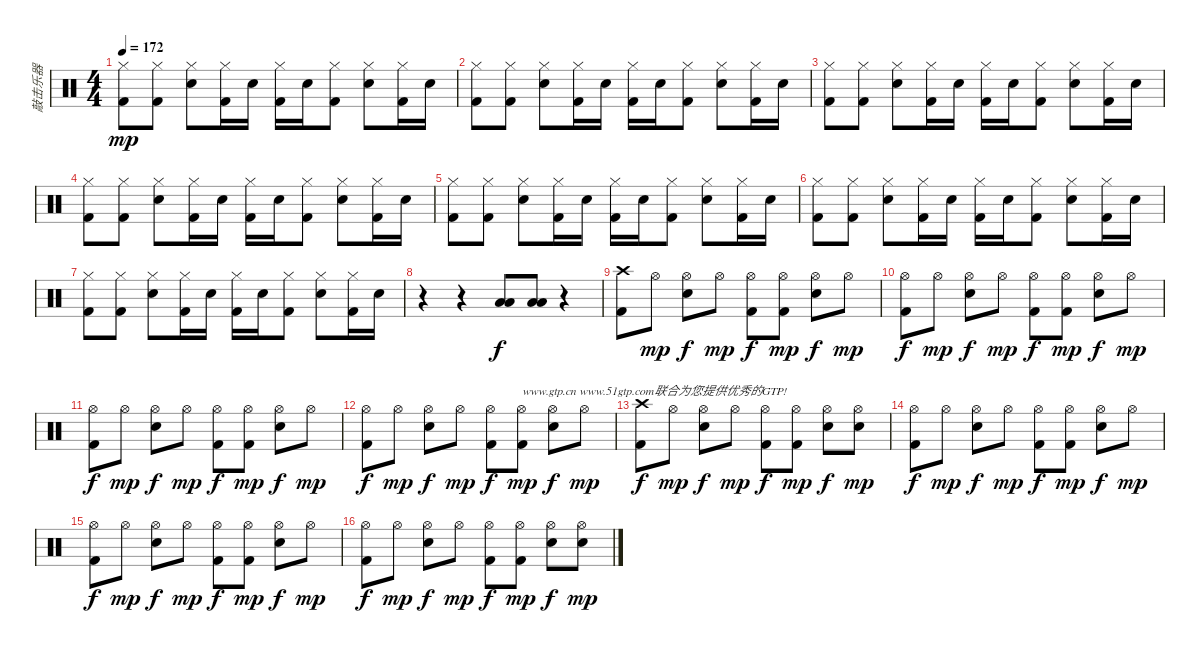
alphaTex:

\track ("敲击乐器" "敲击乐器") {instrument percussion}
\staff {score}
\articulation defaults
\ts (4 4)
\tempo 172
\clef neutral
\ks c
("Hi-Hat (closed)" "Kick (hit) 2").8{dy mp volume 7} ("Hi-Hat (closed)" "Kick (hit) 2").8 ("Hi-Hat (closed)" "Electric Snare (hit)").8 ("Hi-Hat (closed)" "Kick (hit) 2").16 "Electric Snare (hit)".16 ("Hi-Hat (closed)" "Kick (hit) 2").16 "Electric Snare (hit)".16 ("Hi-Hat (closed)" "Kick (hit) 2").8 ("Hi-Hat (closed)" "Electric Snare (hit)").8 ("Hi-Hat (closed)" "Kick (hit) 2").16 "Electric Snare (hit)".16 |
("Hi-Hat (closed)" "Kick (hit) 2").8 ("Hi-Hat (closed)" "Kick (hit) 2").8 ("Hi-Hat (closed)" "Electric Snare (hit)").8 ("Hi-Hat (closed)" "Kick (hit) 2").16 "Electric Snare (hit)".16 ("Hi-Hat (closed)" "Kick (hit) 2").16 "Electric Snare (hit)".16 ("Hi-Hat (closed)" "Kick (hit) 2").8 ("Hi-Hat (closed)" "Electric Snare (hit)").8 ("Hi-Hat (closed)" "Kick (hit) 2").16 "Electric Snare (hit)".16 |
("Hi-Hat (closed)" "Kick (hit) 2").8 ("Hi-Hat (closed)" "Kick (hit) 2").8 ("Hi-Hat (closed)" "Electric Snare (hit)").8 ("Hi-Hat (closed)" "Kick (hit) 2").16 "Electric Snare (hit)".16 ("Hi-Hat (closed)" "Kick (hit) 2").16 "Electric Snare (hit)".16 ("Hi-Hat (closed)" "Kick (hit) 2").8 ("Hi-Hat (closed)" "Electric Snare (hit)").8 ("Hi-Hat (closed)" "Kick (hit) 2").16 "Electric Snare (hit)".16 |
("Hi-Hat (closed)" "Kick (hit) 2").8 ("Hi-Hat (closed)" "Kick (hit) 2").8 ("Hi-Hat (closed)" "Electric Snare (hit)").8 ("Hi-Hat (closed)" "Kick (hit) 2").16 "Electric Snare (hit)".16 ("Hi-Hat (closed)" "Kick (hit) 2").16 "Electric Snare (hit)".16 ("Hi-Hat (closed)" "Kick (hit) 2").8 ("Hi-Hat (closed)" "Electric Snare (hit)").8 ("Hi-Hat (closed)" "Kick (hit) 2").16 "Electric Snare (hit)".16 |
("Hi-Hat (closed)" "Kick (hit) 2").8 ("Hi-Hat (closed)" "Kick (hit) 2").8 ("Hi-Hat (closed)" "Electric Snare (hit)").8 ("Hi-Hat (closed)" "Kick (hit) 2").16 "Electric Snare (hit)".16 ("Hi-Hat (closed)" "Kick (hit) 2").16 "Electric Snare (hit)".16 ("Hi-Hat (closed)" "Kick (hit) 2").8 ("Hi-Hat (closed)" "Electric Snare (hit)").8 ("Hi-Hat (closed)" "Kick (hit) 2").16 "Electric Snare (hit)".16 |
("Hi-Hat (closed)" "Kick (hit) 2").8 ("Hi-Hat (closed)" "Kick (hit) 2").8 ("Hi-Hat (closed)" "Electric Snare (hit)").8 ("Hi-Hat (closed)" "Kick (hit) 2").16 "Electric Snare (hit)".16 ("Hi-Hat (closed)" "Kick (hit) 2").16 "Electric Snare (hit)".16 ("Hi-Hat (closed)" "Kick (hit) 2").8 ("Hi-Hat (closed)" "Electric Snare (hit)").8 ("Hi-Hat (closed)" "Kick (hit) 2").16 "Electric Snare (hit)".16 |
("Hi-Hat (closed)" "Kick (hit) 2").8 ("Hi-Hat (closed)" "Kick (hit) 2").8 ("Hi-Hat (closed)" "Electric Snare (hit)").8 ("Hi-Hat (closed)" "Kick (hit) 2").16 "Electric Snare (hit)".16 ("Hi-Hat (closed)" "Kick (hit) 2").16 "Electric Snare (hit)".16 ("Hi-Hat (closed)" "Kick (hit) 2").8 ("Hi-Hat (closed)" "Electric Snare (hit)").8 ("Hi-Hat (closed)" "Kick (hit) 2").16 "Electric Snare (hit)".16 |
r.4 r.4 ("Low Floor Tom (hit)" "Low Floor Tom (hit)").8{dy f volume 16} ("Low Floor Tom (hit)" "Low Floor Tom (hit)").8 r.4 |
("Crash high (hit)" "Kick (hit) 2").8{volume 16} "Hi-Hat (open)".8{dy mp} ("Hi-Hat (open)" "Electric Snare (hit)").8{dy f} "Hi-Hat (open)".8{dy mp} ("Hi-Hat (open)" "Kick (hit) 2").8{dy f} ("Hi-Hat (open)" "Kick (hit) 2").8{dy mp} ("Hi-Hat (open)" "Electric Snare (hit)").8{dy f} "Hi-Hat (open)".8{dy mp} |
("Hi-Hat (open)" "Kick (hit) 2").8{dy f} "Hi-Hat (open)".8{dy mp} ("Hi-Hat (open)" "Electric Snare (hit)").8{dy f} "Hi-Hat (open)".8{dy mp} ("Hi-Hat (open)" "Kick (hit) 2").8{dy f} ("Hi-Hat (open)" "Kick (hit) 2").8{dy mp} ("Hi-Hat (open)" "Electric Snare (hit)").8{dy f} "Hi-Hat (open)".8{dy mp} |
("Hi-Hat (open)" "Kick (hit) 2").8{dy f} "Hi-Hat (open)".8{dy mp} ("Hi-Hat (open)" "Electric Snare (hit)").8{dy f} "Hi-Hat (open)".8{dy mp} ("Hi-Hat (open)" "Kick (hit) 2").8{dy f} ("Hi-Hat (open)" "Kick (hit) 2").8{dy mp} ("Hi-Hat (open)" "Electric Snare (hit)").8{dy f} "Hi-Hat (open)".8{dy mp} |
("Hi-Hat (open)" "Kick (hit) 2").8{dy f} "Hi-Hat (open)".8{dy mp} ("Hi-Hat (open)" "Electric Snare (hit)").8{dy f} "Hi-Hat (open)".8{dy mp} ("Hi-Hat (open)" "Kick (hit) 2").8{dy f} ("Hi-Hat (open)" "Kick (hit) 2").8{txt "www.gtp.cn www.51gtp.com联合为您提供优秀的GTP!" dy mp} ("Hi-Hat (open)" "Electric Snare (hit)").8{dy f} "Hi-Hat (open)".8{dy mp} |
("Crash high (hit)" "Kick (hit) 2").8{dy f} "Hi-Hat (open)".8{dy mp} ("Hi-Hat (open)" "Electric Snare (hit)").8{dy f} "Hi-Hat (open)".8{dy mp} ("Hi-Hat (open)" "Kick (hit) 2").8{dy f} ("Hi-Hat (open)" "Kick (hit) 2").8{dy mp} ("Hi-Hat (open)" "Electric Snare (hit)").8{dy f} ("Hi-Hat (open)" "Electric Snare (hit)").8{dy mp} |
("Hi-Hat (open)" "Kick (hit) 2").8{dy f} "Hi-Hat (open)".8{dy mp} ("Hi-Hat (open)" "Electric Snare (hit)").8{dy f} "Hi-Hat (open)".8{dy mp} ("Hi-Hat (open)" "Kick (hit) 2").8{dy f} ("Hi-Hat (open)" "Kick (hit) 2").8{dy mp} ("Hi-Hat (open)" "Electric Snare (hit)").8{dy f} "Hi-Hat (open)".8{dy mp} |
("Hi-Hat (open)" "Kick (hit) 2").8{dy f} "Hi-Hat (open)".8{dy mp} ("Hi-Hat (open)" "Electric Snare (hit)").8{dy f} "Hi-Hat (open)".8{dy mp} ("Hi-Hat (open)" "Kick (hit) 2").8{dy f} ("Hi-Hat (open)" "Kick (hit) 2").8{dy mp} ("Hi-Hat (open)" "Electric Snare (hit)").8{dy f} "Hi-Hat (open)".8{dy mp} |
("Hi-Hat (open)" "Kick (hit) 2").8{dy f} "Hi-Hat (open)".8{dy mp} ("Hi-Hat (open)" "Electric Snare (hit)").8{dy f} "Hi-Hat (open)".8{dy mp} ("Hi-Hat (open)" "Kick (hit) 2").8{dy f} ("Hi-Hat (open)" "Kick (hit) 2").8{dy mp} ("Hi-Hat (open)" "Electric Snare (hit)").8{dy f} ("Hi-Hat (open)" "Electric Snare (hit)").8{dy mp}
